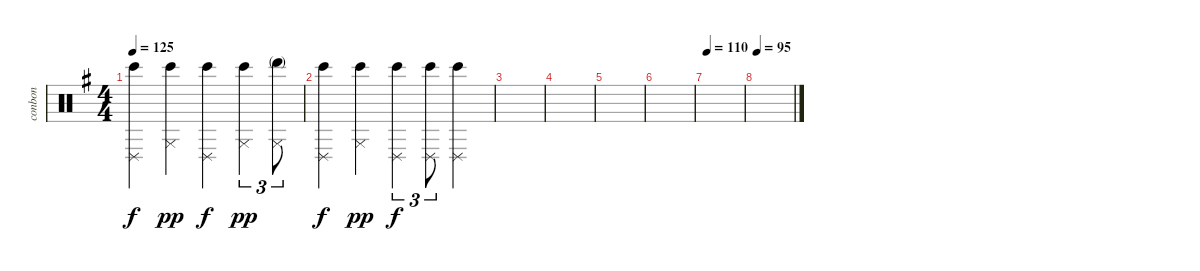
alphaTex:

\defaultSystemsLayout 4
\bracketExtendMode groupsimilarinstruments
\otherSystemsTrackNameOrientation horizontal
\track ("Bongos N Congas" "conbon") {instrument percussion}
\staff {score}
\articulation defaults
\ts (4 4)
\tempo 125
\clef neutral
\scale
0.333333
\ks g
("Conga low (slap)"{acc forcenatural} "Bongo High (hit)"{acc forcenatural}).4{dy f beam Down} ("Conga high (slap)"{acc forcenatural} "Bongo High (hit)"{acc forcenatural}).4{dy pp beam Down} ("Conga low (slap)"{acc forcenatural} "Bongo High (hit)"{acc forcenatural}).4{dy f beam Down} ("Conga high (slap)"{acc forcenatural} "Bongo High (hit)"{acc forcenatural}).4{tu (3 2) dy pp beam Down} ("Conga high (slap)"{acc forcenatural} "Hand (mute)"{acc forcenatural}).8{tu (3 2) beam Down} |
("Conga low (slap)"{acc forcenatural} "Bongo High (hit)"{acc forcenatural}).4{dy f beam Down} ("Conga high (slap)"{acc forcenatural} "Bongo High (hit)"{acc forcenatural}).4{dy pp beam Down} ("Conga low (slap)"{acc forcenatural} "Bongo High (hit)"{acc forcenatural}).4{tu (3 2) dy f beam Down} ("Conga low (slap)"{acc forcenatural} "Bongo High (hit)"{acc forcenatural}).8{tu (3 2) beam Down} ("Conga low (slap)"{acc forcenatural} "Bongo High (hit)"{acc forcenatural}).4{beam Down} |
|
|
|
|
\tempo 110
|
\tempo 95
